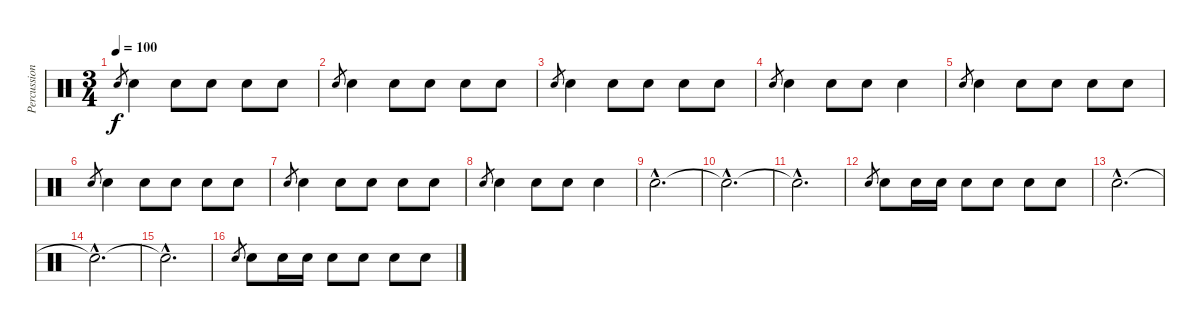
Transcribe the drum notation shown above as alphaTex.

\track ("Percussion" "Percussion") {instrument percussion}
\staff {score}
\articulation defaults
\ts (3 4)
\tempo 100
\clef neutral
\ks c "Snare (hit) 2".8{gr dy f} "Snare (hit) 2"{tr (38 64)}.4 "Snare (hit) 2".8 "Snare (hit) 2".8 "Snare (hit) 2".8 "Snare (hit) 2".8
|
"Snare (hit) 2".8{gr} "Snare (hit) 2"{tr (38 64)}.4 "Snare (hit) 2".8 "Snare (hit) 2".8 "Snare (hit) 2".8 "Snare (hit) 2".8 |
"Snare (hit) 2".8{gr} "Snare (hit) 2"{tr (38 64)}.4 "Snare (hit) 2".8 "Snare (hit) 2".8 "Snare (hit) 2".8 "Snare (hit) 2".8 |
"Snare (hit) 2".8{gr} "Snare (hit) 2"{tr (38 64)}.4 "Snare (hit) 2".8 "Snare (hit) 2".8 "Snare (hit) 2".4 |
"Snare (hit) 2".8{gr} "Snare (hit) 2"{tr (38 64)}.4 "Snare (hit) 2".8 "Snare (hit) 2".8 "Snare (hit) 2".8 "Snare (hit) 2".8 |
"Snare (hit) 2".8{gr} "Snare (hit) 2"{tr (38 64)}.4 "Snare (hit) 2".8 "Snare (hit) 2".8 "Snare (hit) 2".8 "Snare (hit) 2".8 |
"Snare (hit) 2".8{gr} "Snare (hit) 2"{tr (38 64)}.4 "Snare (hit) 2".8 "Snare (hit) 2".8 "Snare (hit) 2".8 "Snare (hit) 2".8 |
"Snare (hit) 2".8{gr} "Snare (hit) 2"{tr (38 64)}.4 "Snare (hit) 2".8 "Snare (hit) 2".8 "Snare (hit) 2".4 |
"Snare (hit) 2"{tr (38 64) hac}.2{d} |
"Snare (hit) 2"{hac t}.2{d} |
"Snare (hit) 2"{hac t}.2{d} |
"Snare (hit) 2".8{gr} "Snare (hit) 2".8 "Snare (hit) 2".16 "Snare (hit) 2".16 "Snare (hit) 2".8 "Snare (hit) 2".8 "Snare (hit) 2".8 "Snare (hit) 2".8 |
"Snare (hit) 2"{tr (38 64) hac}.2{d} |
"Snare (hit) 2"{hac t}.2{d} |
"Snare (hit) 2"{hac t}.2{d} |
"Snare (hit) 2".8{gr} "Snare (hit) 2".8 "Snare (hit) 2".16 "Snare (hit) 2".16 "Snare (hit) 2".8 "Snare (hit) 2".8 "Snare (hit) 2".8 "Snare (hit) 2".8
